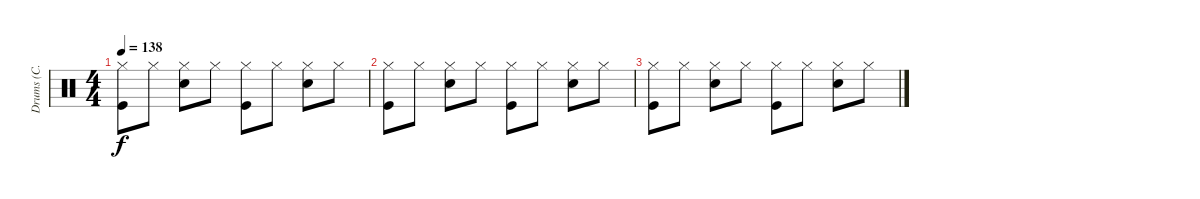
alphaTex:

\track ("Drums (C. Watts)" "Drums (C. ") {instrument percussion}
\staff {score}
\articulation defaults
\ts (4 4)
\tempo 138
\clef neutral
\ks c
("Hi-Hat (closed)" "Kick (hit)").8{dy f} "Hi-Hat (closed)".8 ("Hi-Hat (closed)" "Snare (hit) 2").8 "Hi-Hat (closed)".8 ("Hi-Hat (closed)" "Kick (hit)").8 "Hi-Hat (closed)".8 ("Hi-Hat (closed)" "Snare (hit) 2").8 "Hi-Hat (closed)".8 |
("Hi-Hat (closed)" "Kick (hit)").8 "Hi-Hat (closed)".8 ("Hi-Hat (closed)" "Snare (hit) 2").8 "Hi-Hat (closed)".8 ("Hi-Hat (closed)" "Kick (hit)").8 "Hi-Hat (closed)".8 ("Hi-Hat (closed)" "Snare (hit) 2").8 "Hi-Hat (closed)".8 |
("Hi-Hat (closed)" "Kick (hit)").8 "Hi-Hat (closed)".8 ("Hi-Hat (closed)" "Snare (hit) 2").8 "Hi-Hat (closed)".8 ("Hi-Hat (closed)" "Kick (hit)").8 "Hi-Hat (closed)".8 ("Hi-Hat (closed)" "Snare (hit) 2").8 "Hi-Hat (closed)".8
